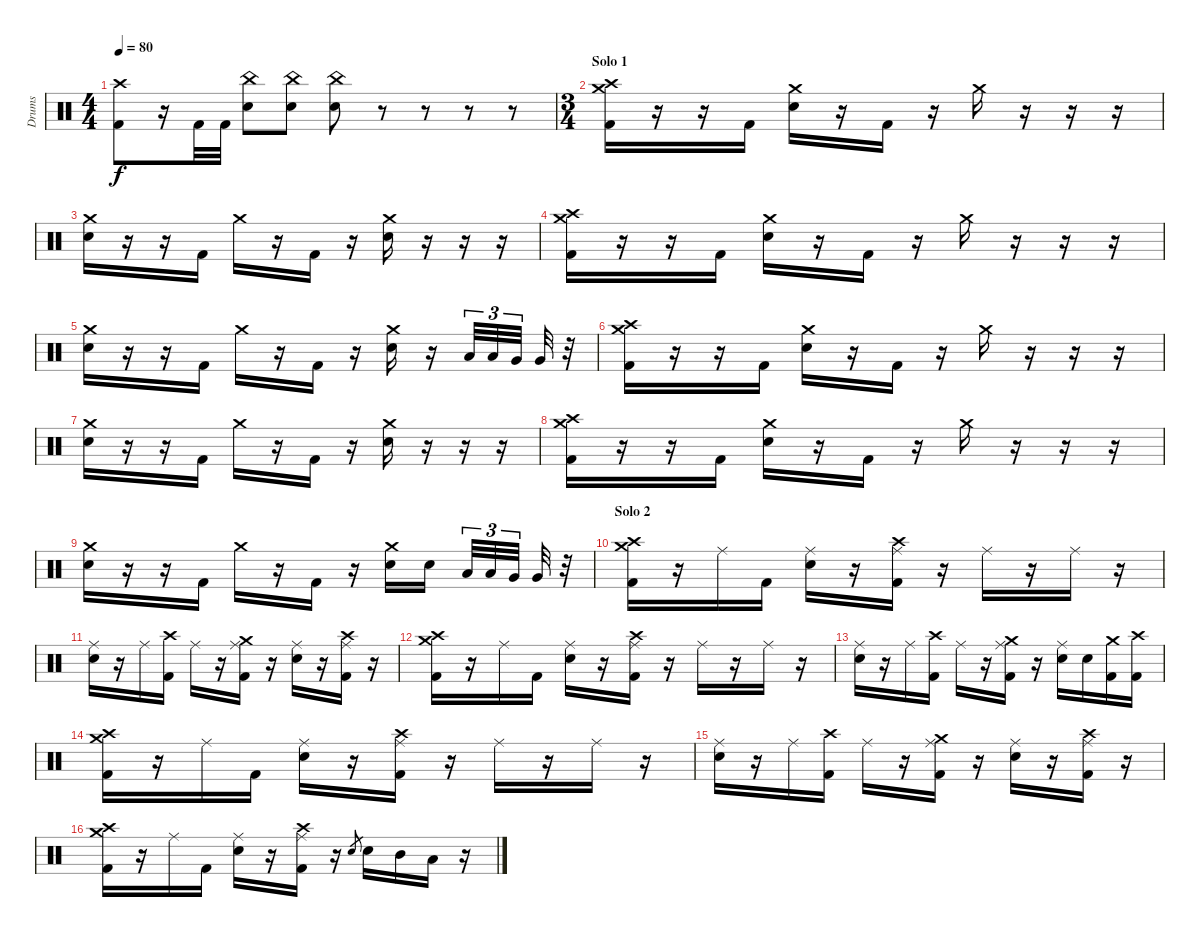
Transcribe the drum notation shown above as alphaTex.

\track ("Drums" "Drums") {instrument percussion}
\staff {score}
\articulation defaults
\ts (4 4)
\tempo 80
\clef neutral
\ks c
("Crash high (hit)" "Kick (hit) 2").8{dy f} r.16 "Kick (hit) 2".32 "Kick (hit) 2".32 ("China (hit)" "Electric Snare (hit)").8 ("China (hit)" "Electric Snare (hit)").8 ("China (hit)" "Electric Snare (hit)").8 r.8 r.8 r.8 r.8 |
\ts (3 4)
\section ("" "Solo 1")
("Crash high (hit)" "Crash medium (hit)" "Kick (hit) 2").16 r.16 r.16 "Kick (hit) 2".16 ("Crash medium (hit)" "Electric Snare (hit)").16 r.16 "Kick (hit) 2".16 r.16 "Crash medium (hit)".16 r.16 r.16 r.16 |
("Crash medium (hit)" "Electric Snare (hit)").16 r.16 r.16 "Kick (hit) 2".16 "Crash medium (hit)".16 r.16 "Kick (hit) 2".16 r.16 ("Crash medium (hit)" "Electric Snare (hit)").16 r.16 r.16 r.16 |
("Crash high (hit)" "Crash medium (hit)" "Kick (hit) 2").16 r.16 r.16 "Kick (hit) 2".16 ("Crash medium (hit)" "Electric Snare (hit)").16 r.16 "Kick (hit) 2".16 r.16 "Crash medium (hit)".16 r.16 r.16 r.16 |
("Crash medium (hit)" "Electric Snare (hit)").16 r.16 r.16 "Kick (hit) 2".16 "Crash medium (hit)".16 r.16 "Kick (hit) 2".16 r.16 ("Crash medium (hit)" "Electric Snare (hit)").16 r.16 "Low Tom (hit)".32{tu (3 2)} "Low Tom (hit)".32{tu (3 2)} "Very Low Tom (hit)".32{tu (3 2)} "Very Low Tom (hit)".32 r.32 |
("Crash high (hit)" "Crash medium (hit)" "Kick (hit) 2").16 r.16 r.16 "Kick (hit) 2".16 ("Crash medium (hit)" "Electric Snare (hit)").16 r.16 "Kick (hit) 2".16 r.16 "Crash medium (hit)".16 r.16 r.16 r.16 |
("Crash medium (hit)" "Electric Snare (hit)").16 r.16 r.16 "Kick (hit) 2".16 "Crash medium (hit)".16 r.16 "Kick (hit) 2".16 r.16 ("Crash medium (hit)" "Electric Snare (hit)").16 r.16 r.16 r.16 |
("Crash high (hit)" "Crash medium (hit)" "Kick (hit) 2").16 r.16 r.16 "Kick (hit) 2".16 ("Crash medium (hit)" "Electric Snare (hit)").16 r.16 "Kick (hit) 2".16 r.16 "Crash medium (hit)".16 r.16 r.16 r.16 |
("Crash medium (hit)" "Electric Snare (hit)").16 r.16 r.16 "Kick (hit) 2".16 "Crash medium (hit)".16 r.16 "Kick (hit) 2".16 r.16 ("Crash medium (hit)" "Electric Snare (hit)").16 "Electric Snare (hit)".16 "Low Tom (hit)".32{tu (3 2)} "Low Tom (hit)".32{tu (3 2)} "Very Low Tom (hit)".32{tu (3 2)} "Very Low Tom (hit)".32 r.32 |
\section ("" "Solo 2")
("Crash high (hit)" "Crash medium (hit)" "Kick (hit) 2").16 r.16 "Ride (middle)".16 "Kick (hit) 2".16 ("Ride (middle)" "Electric Snare (hit)").16 r.16 ("Crash high (hit)" "Ride (middle)" "Kick (hit) 2").16 r.16 "Ride (middle)".16 r.16 "Ride (middle)".16 r.16 |
("Ride (middle)" "Electric Snare (hit)").16 r.16 "Ride (middle)".16 ("Crash high (hit)" "Kick (hit) 2").16 "Ride (middle)".16 r.16 ("Crash medium (hit)" "Ride (middle)" "Kick (hit) 2").16 r.16 ("Ride (middle)" "Electric Snare (hit)").16 r.16 ("Crash high (hit)" "Ride (middle)" "Kick (hit) 2").16 r.16 |
("Crash high (hit)" "Crash medium (hit)" "Kick (hit) 2").16 r.16 "Ride (middle)".16 "Kick (hit) 2".16 ("Ride (middle)" "Electric Snare (hit)").16 r.16 ("Crash high (hit)" "Ride (middle)" "Kick (hit) 2").16 r.16 "Ride (middle)".16 r.16 "Ride (middle)".16 r.16 |
("Ride (middle)" "Electric Snare (hit)").16 r.16 "Ride (middle)".16 ("Crash high (hit)" "Kick (hit) 2").16 "Ride (middle)".16 r.16 ("Crash medium (hit)" "Ride (middle)" "Kick (hit) 2").16 r.16 ("Ride (middle)" "Electric Snare (hit)").16 "Electric Snare (hit)".16 ("Crash medium (hit)" "Kick (hit) 2").16 ("Crash high (hit)" "Kick (hit) 2").16 |
("Crash high (hit)" "Crash medium (hit)" "Kick (hit) 2").16 r.16 "Ride (middle)".16 "Kick (hit) 2".16 ("Ride (middle)" "Electric Snare (hit)").16 r.16 ("Crash high (hit)" "Ride (middle)" "Kick (hit) 2").16 r.16 "Ride (middle)".16 r.16 "Ride (middle)".16 r.16 |
("Ride (middle)" "Electric Snare (hit)").16 r.16 "Ride (middle)".16 ("Crash high (hit)" "Kick (hit) 2").16 "Ride (middle)".16 r.16 ("Crash medium (hit)" "Ride (middle)" "Kick (hit) 2").16 r.16 ("Ride (middle)" "Electric Snare (hit)").16 r.16 ("Crash high (hit)" "Ride (middle)" "Kick (hit) 2").16 r.16 |
("Crash high (hit)" "Crash medium (hit)" "Kick (hit) 2").16 r.16 "Ride (middle)".16 "Kick (hit) 2".16 ("Ride (middle)" "Electric Snare (hit)").16 r.16 ("Crash high (hit)" "Ride (middle)" "Kick (hit) 2").16 r.16 "Electric Snare (hit)".8{gr} "Electric Snare (hit)".16 "Mid Tom (hit)".16 "Low Tom (hit)".16 r.16
